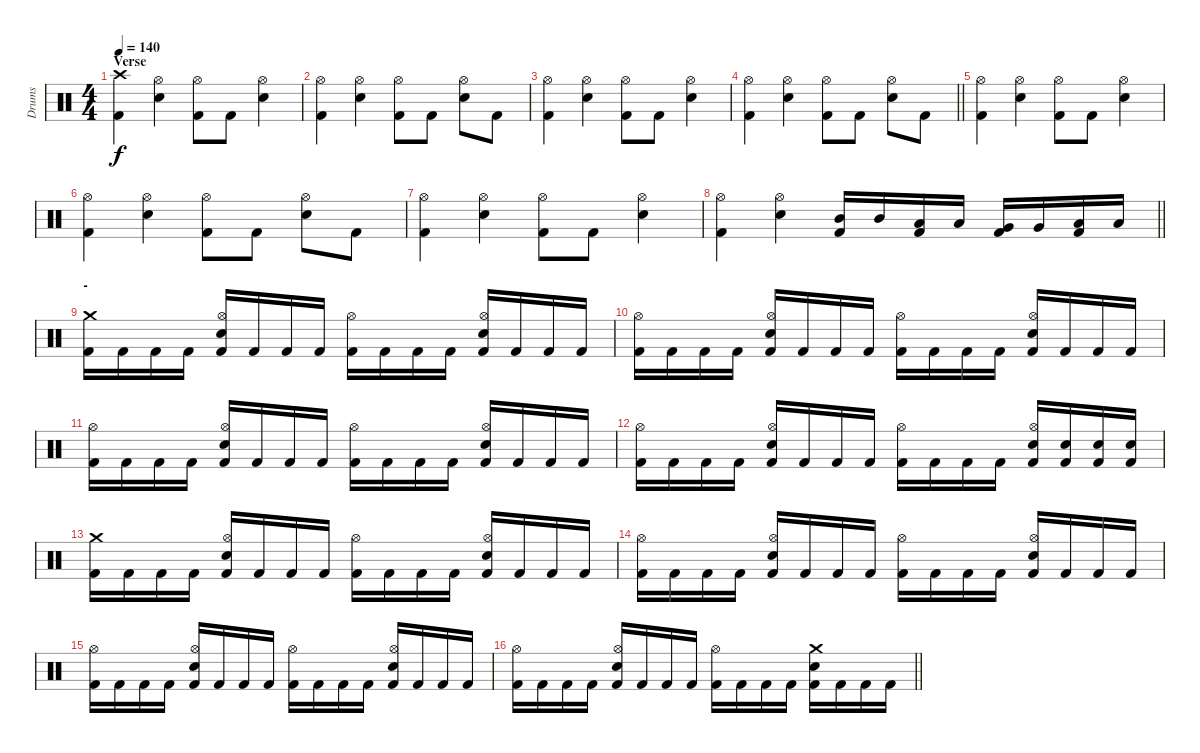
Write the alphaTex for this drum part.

\track ("Drums " "Drums ") {instrument percussion}
\staff {score}
\articulation defaults
\ts (4 4)
\section ("" "Verse ")
\tempo 140
\clef neutral
\ks c
("Crash high (hit)" "Kick (hit) 2").4{dy f} ("Hi-Hat (open)" "Electric Snare (hit)").4 ("Hi-Hat (open)" "Kick (hit) 2").8 "Kick (hit) 2".8 ("Hi-Hat (open)" "Electric Snare (hit)").4 |
("Hi-Hat (open)" "Kick (hit) 2").4 ("Hi-Hat (open)" "Electric Snare (hit)").4 ("Hi-Hat (open)" "Kick (hit) 2").8 "Kick (hit) 2".8 ("Hi-Hat (open)" "Electric Snare (hit)").8 "Kick (hit) 2".8 |
("Hi-Hat (open)" "Kick (hit) 2").4 ("Hi-Hat (open)" "Electric Snare (hit)").4 ("Hi-Hat (open)" "Kick (hit) 2").8 "Kick (hit) 2".8 ("Hi-Hat (open)" "Electric Snare (hit)").4 |
\barLineRight lightlight
("Hi-Hat (open)" "Kick (hit) 2").4 ("Hi-Hat (open)" "Electric Snare (hit)").4 ("Hi-Hat (open)" "Kick (hit) 2").8 "Kick (hit) 2".8 ("Hi-Hat (open)" "Electric Snare (hit)").8 "Kick (hit) 2".8 |
("Hi-Hat (open)" "Kick (hit) 2").4 ("Hi-Hat (open)" "Electric Snare (hit)").4 ("Hi-Hat (open)" "Kick (hit) 2").8 "Kick (hit) 2".8 ("Hi-Hat (open)" "Electric Snare (hit)").4 |
("Hi-Hat (open)" "Kick (hit) 2").4 ("Hi-Hat (open)" "Electric Snare (hit)").4 ("Hi-Hat (open)" "Kick (hit) 2").8 "Kick (hit) 2".8 ("Hi-Hat (open)" "Electric Snare (hit)").8 "Kick (hit) 2".8 |
("Hi-Hat (open)" "Kick (hit) 2").4 ("Hi-Hat (open)" "Electric Snare (hit)").4 ("Hi-Hat (open)" "Kick (hit) 2").8 "Kick (hit) 2".8 ("Hi-Hat (open)" "Electric Snare (hit)").4 |
\barLineRight lightlight
("Hi-Hat (open)" "Kick (hit) 2").4 ("Hi-Hat (open)" "Electric Snare (hit)").4 ("Mid Tom (hit)" "Kick (hit) 2").16 "Mid Tom (hit)".16 ("Low Tom (hit)" "Kick (hit) 2").16 "Low Tom (hit)".16 ("Very Low Tom (hit)" "Kick (hit) 2").16 "Very Low Tom (hit)".16 ("Low Floor Tom (hit)" "Kick (hit) 2").16 "Low Floor Tom (hit)".16 |
\section ("" "-")
("Kick (hit) 2" "Crash medium (hit)").16 "Kick (hit) 2".16 "Kick (hit) 2".16 "Kick (hit) 2".16 ("Kick (hit) 2" "Electric Snare (hit)" "Hi-Hat (open)").16 "Kick (hit) 2".16 "Kick (hit) 2".16 "Kick (hit) 2".16 ("Kick (hit) 2" "Hi-Hat (open)").16 "Kick (hit) 2".16 "Kick (hit) 2".16 "Kick (hit) 2".16 ("Kick (hit) 2" "Electric Snare (hit)" "Hi-Hat (open)").16 "Kick (hit) 2".16 "Kick (hit) 2".16 "Kick (hit) 2".16 |
("Kick (hit) 2" "Hi-Hat (open)").16 "Kick (hit) 2".16 "Kick (hit) 2".16 "Kick (hit) 2".16 ("Kick (hit) 2" "Electric Snare (hit)" "Hi-Hat (open)").16 "Kick (hit) 2".16 "Kick (hit) 2".16 "Kick (hit) 2".16 ("Kick (hit) 2" "Hi-Hat (open)").16 "Kick (hit) 2".16 "Kick (hit) 2".16 "Kick (hit) 2".16 ("Kick (hit) 2" "Electric Snare (hit)" "Hi-Hat (open)").16 "Kick (hit) 2".16 "Kick (hit) 2".16 "Kick (hit) 2".16 |
("Kick (hit) 2" "Hi-Hat (open)").16 "Kick (hit) 2".16 "Kick (hit) 2".16 "Kick (hit) 2".16 ("Kick (hit) 2" "Electric Snare (hit)" "Hi-Hat (open)").16 "Kick (hit) 2".16 "Kick (hit) 2".16 "Kick (hit) 2".16 ("Kick (hit) 2" "Hi-Hat (open)").16 "Kick (hit) 2".16 "Kick (hit) 2".16 "Kick (hit) 2".16 ("Kick (hit) 2" "Electric Snare (hit)" "Hi-Hat (open)").16 "Kick (hit) 2".16 "Kick (hit) 2".16 "Kick (hit) 2".16 |
("Kick (hit) 2" "Hi-Hat (open)").16 "Kick (hit) 2".16 "Kick (hit) 2".16 "Kick (hit) 2".16 ("Kick (hit) 2" "Electric Snare (hit)" "Hi-Hat (open)").16 "Kick (hit) 2".16 "Kick (hit) 2".16 "Kick (hit) 2".16 ("Kick (hit) 2" "Hi-Hat (open)").16 "Kick (hit) 2".16 "Kick (hit) 2".16 "Kick (hit) 2".16 ("Kick (hit) 2" "Electric Snare (hit)" "Hi-Hat (open)").16 ("Kick (hit) 2" "Electric Snare (hit)").16 ("Kick (hit) 2" "Electric Snare (hit)").16 ("Kick (hit) 2" "Electric Snare (hit)").16 |
("Kick (hit) 2" "Crash medium (hit)").16 "Kick (hit) 2".16 "Kick (hit) 2".16 "Kick (hit) 2".16 ("Kick (hit) 2" "Electric Snare (hit)" "Hi-Hat (open)").16 "Kick (hit) 2".16 "Kick (hit) 2".16 "Kick (hit) 2".16 ("Kick (hit) 2" "Hi-Hat (open)").16 "Kick (hit) 2".16 "Kick (hit) 2".16 "Kick (hit) 2".16 ("Kick (hit) 2" "Electric Snare (hit)" "Hi-Hat (open)").16 "Kick (hit) 2".16 "Kick (hit) 2".16 "Kick (hit) 2".16 |
("Kick (hit) 2" "Hi-Hat (open)").16 "Kick (hit) 2".16 "Kick (hit) 2".16 "Kick (hit) 2".16 ("Kick (hit) 2" "Electric Snare (hit)" "Hi-Hat (open)").16 "Kick (hit) 2".16 "Kick (hit) 2".16 "Kick (hit) 2".16 ("Kick (hit) 2" "Hi-Hat (open)").16 "Kick (hit) 2".16 "Kick (hit) 2".16 "Kick (hit) 2".16 ("Kick (hit) 2" "Electric Snare (hit)" "Hi-Hat (open)").16 "Kick (hit) 2".16 "Kick (hit) 2".16 "Kick (hit) 2".16 |
("Kick (hit) 2" "Hi-Hat (open)").16 "Kick (hit) 2".16 "Kick (hit) 2".16 "Kick (hit) 2".16 ("Kick (hit) 2" "Electric Snare (hit)" "Hi-Hat (open)").16 "Kick (hit) 2".16 "Kick (hit) 2".16 "Kick (hit) 2".16 ("Kick (hit) 2" "Hi-Hat (open)").16 "Kick (hit) 2".16 "Kick (hit) 2".16 "Kick (hit) 2".16 ("Kick (hit) 2" "Electric Snare (hit)" "Hi-Hat (open)").16 "Kick (hit) 2".16 "Kick (hit) 2".16 "Kick (hit) 2".16 |
\barLineRight lightlight
("Kick (hit) 2" "Hi-Hat (open)").16 "Kick (hit) 2".16 "Kick (hit) 2".16 "Kick (hit) 2".16 ("Kick (hit) 2" "Electric Snare (hit)" "Hi-Hat (open)").16 "Kick (hit) 2".16 "Kick (hit) 2".16 "Kick (hit) 2".16 ("Kick (hit) 2" "Hi-Hat (open)").16 "Kick (hit) 2".16 "Kick (hit) 2".16 "Kick (hit) 2".16 ("Kick (hit) 2" "Electric Snare (hit)" "Crash medium (hit)").16 "Kick (hit) 2".16 "Kick (hit) 2".16 "Kick (hit) 2".16
